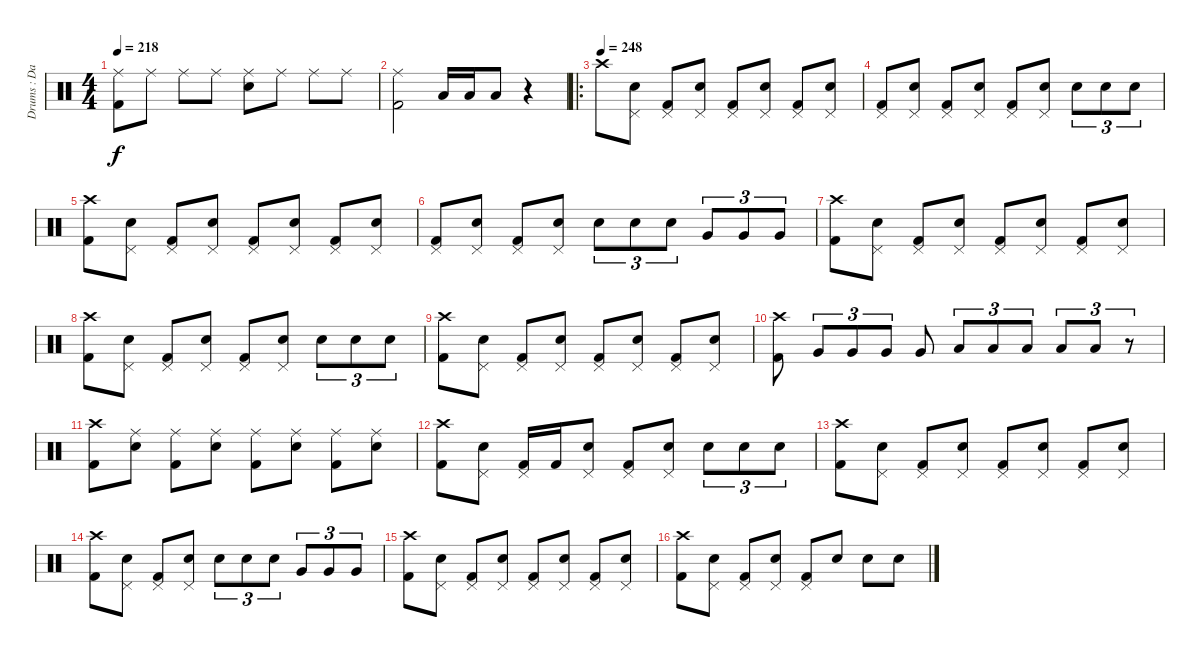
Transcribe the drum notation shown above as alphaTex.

\track ("Drums : Dave Lombardo" "Drums : Da") {instrument percussion}
\staff {score}
\articulation defaults
\ts (4 4)
\tempo 218
\clef neutral
\ks c
("Ride (middle)" "Kick (hit) 2").8{dy f} "Ride (middle)".8 "Ride (middle)".8 "Ride (middle)".8 ("Ride (middle)" "Electric Snare (hit)").8 "Ride (middle)".8 "Ride (middle)".8 "Ride (middle)".8 |
("Ride (middle)" "Kick (hit) 2").2 "Low Floor Tom (hit)".16 "Low Floor Tom (hit)".16 "Low Floor Tom (hit)".8 r.4 |
\ro
\tempo (248)
"Crash high (hit)".8 ("Pedal Hi-Hat (hit)" "Electric Snare (hit)").8 ("Pedal Hi-Hat (hit)" "Kick (hit) 2").8 ("Pedal Hi-Hat (hit)" "Electric Snare (hit)").8 ("Pedal Hi-Hat (hit)" "Kick (hit) 2").8 ("Pedal Hi-Hat (hit)" "Electric Snare (hit)").8 ("Pedal Hi-Hat (hit)" "Kick (hit) 2").8 ("Pedal Hi-Hat (hit)" "Electric Snare (hit)").8 |
("Pedal Hi-Hat (hit)" "Kick (hit) 2").8 ("Pedal Hi-Hat (hit)" "Electric Snare (hit)").8 ("Pedal Hi-Hat (hit)" "Kick (hit) 2").8 ("Pedal Hi-Hat (hit)" "Electric Snare (hit)").8 ("Pedal Hi-Hat (hit)" "Kick (hit) 2").8 ("Pedal Hi-Hat (hit)" "Electric Snare (hit)").8 "Electric Snare (hit)".8{tu (3 2)} "Electric Snare (hit)".8{tu (3 2)} "Electric Snare (hit)".8{tu (3 2)} |
("Crash high (hit)" "Kick (hit) 2").8 ("Pedal Hi-Hat (hit)" "Electric Snare (hit)").8 ("Pedal Hi-Hat (hit)" "Kick (hit) 2").8 ("Pedal Hi-Hat (hit)" "Electric Snare (hit)").8 ("Pedal Hi-Hat (hit)" "Kick (hit) 2").8 ("Pedal Hi-Hat (hit)" "Electric Snare (hit)").8 ("Pedal Hi-Hat (hit)" "Kick (hit) 2").8 ("Pedal Hi-Hat (hit)" "Electric Snare (hit)").8 |
("Pedal Hi-Hat (hit)" "Kick (hit) 2").8 ("Pedal Hi-Hat (hit)" "Electric Snare (hit)").8 ("Pedal Hi-Hat (hit)" "Kick (hit) 2").8 ("Pedal Hi-Hat (hit)" "Electric Snare (hit)").8 "Electric Snare (hit)".8{tu (3 2)} "Electric Snare (hit)".8{tu (3 2)} "Electric Snare (hit)".8{tu (3 2)} "Very Low Tom (hit)".8{tu (3 2)} "Very Low Tom (hit)".8{tu (3 2)} "Very Low Tom (hit)".8{tu (3 2)} |
("Crash high (hit)" "Kick (hit) 2").8 ("Pedal Hi-Hat (hit)" "Electric Snare (hit)").8 ("Pedal Hi-Hat (hit)" "Kick (hit) 2").8 ("Pedal Hi-Hat (hit)" "Electric Snare (hit)").8 ("Pedal Hi-Hat (hit)" "Kick (hit) 2").8 ("Pedal Hi-Hat (hit)" "Electric Snare (hit)").8 ("Pedal Hi-Hat (hit)" "Kick (hit) 2").8 ("Pedal Hi-Hat (hit)" "Electric Snare (hit)").8 |
("Crash high (hit)" "Kick (hit) 2").8 ("Pedal Hi-Hat (hit)" "Electric Snare (hit)").8 ("Pedal Hi-Hat (hit)" "Kick (hit) 2").8 ("Pedal Hi-Hat (hit)" "Electric Snare (hit)").8 ("Pedal Hi-Hat (hit)" "Kick (hit) 2").8 ("Pedal Hi-Hat (hit)" "Electric Snare (hit)").8 "Electric Snare (hit)".8{tu (3 2)} "Electric Snare (hit)".8{tu (3 2)} "Electric Snare (hit)".8{tu (3 2)} |
("Crash high (hit)" "Kick (hit) 2").8 ("Pedal Hi-Hat (hit)" "Electric Snare (hit)").8 ("Pedal Hi-Hat (hit)" "Kick (hit) 2").8 ("Pedal Hi-Hat (hit)" "Electric Snare (hit)").8 ("Pedal Hi-Hat (hit)" "Kick (hit) 2").8 ("Pedal Hi-Hat (hit)" "Electric Snare (hit)").8 ("Pedal Hi-Hat (hit)" "Kick (hit) 2").8 ("Pedal Hi-Hat (hit)" "Electric Snare (hit)").8 |
("Crash high (hit)" "Kick (hit) 2").8 "Very Low Tom (hit)".8{tu (3 2)} "Very Low Tom (hit)".8{tu (3 2)} "Very Low Tom (hit)".8{tu (3 2)} "Very Low Tom (hit)".8 "Low Tom (hit)".8{tu (3 2)} "Low Tom (hit)".8{tu (3 2)} "Low Tom (hit)".8{tu (3 2)} "Low Tom (hit)".8{tu (3 2)} "Low Tom (hit)".8{tu (3 2)} r.8{tu (3 2)} |
("Crash high (hit)" "Kick (hit) 2").8 ("Ride (middle)" "Electric Snare (hit)").8 ("Ride (middle)" "Kick (hit) 2").8 ("Ride (middle)" "Electric Snare (hit)").8 ("Ride (middle)" "Kick (hit) 2").8 ("Ride (middle)" "Electric Snare (hit)").8 ("Ride (middle)" "Kick (hit) 2").8 ("Ride (middle)" "Electric Snare (hit)").8 |
("Crash high (hit)" "Kick (hit) 2").8 ("Pedal Hi-Hat (hit)" "Electric Snare (hit)").8 ("Pedal Hi-Hat (hit)" "Kick (hit) 2").16 "Kick (hit) 2".16 ("Pedal Hi-Hat (hit)" "Electric Snare (hit)").8 ("Pedal Hi-Hat (hit)" "Kick (hit) 2").8 ("Pedal Hi-Hat (hit)" "Electric Snare (hit)").8 "Electric Snare (hit)".8{tu (3 2)} "Electric Snare (hit)".8{tu (3 2)} "Electric Snare (hit)".8{tu (3 2)} |
("Crash high (hit)" "Kick (hit) 2").8 ("Pedal Hi-Hat (hit)" "Electric Snare (hit)").8 ("Pedal Hi-Hat (hit)" "Kick (hit) 2").8 ("Pedal Hi-Hat (hit)" "Electric Snare (hit)").8 ("Pedal Hi-Hat (hit)" "Kick (hit) 2").8 ("Pedal Hi-Hat (hit)" "Electric Snare (hit)").8 ("Pedal Hi-Hat (hit)" "Kick (hit) 2").8 ("Pedal Hi-Hat (hit)" "Electric Snare (hit)").8 |
("Crash high (hit)" "Kick (hit) 2").8 ("Pedal Hi-Hat (hit)" "Electric Snare (hit)").8 ("Pedal Hi-Hat (hit)" "Kick (hit) 2").8 ("Pedal Hi-Hat (hit)" "Electric Snare (hit)").8 "Electric Snare (hit)".8{tu (3 2)} "Electric Snare (hit)".8{tu (3 2)} "Electric Snare (hit)".8{tu (3 2)} "Very Low Tom (hit)".8{tu (3 2)} "Very Low Tom (hit)".8{tu (3 2)} "Very Low Tom (hit)".8{tu (3 2)} |
("Crash high (hit)" "Kick (hit) 2").8 ("Pedal Hi-Hat (hit)" "Electric Snare (hit)").8 ("Pedal Hi-Hat (hit)" "Kick (hit) 2").8 ("Pedal Hi-Hat (hit)" "Electric Snare (hit)").8 ("Pedal Hi-Hat (hit)" "Kick (hit) 2").8 ("Pedal Hi-Hat (hit)" "Electric Snare (hit)").8 ("Pedal Hi-Hat (hit)" "Kick (hit) 2").8 ("Pedal Hi-Hat (hit)" "Electric Snare (hit)").8 |
("Crash high (hit)" "Kick (hit) 2").8 ("Pedal Hi-Hat (hit)" "Electric Snare (hit)").8 ("Pedal Hi-Hat (hit)" "Kick (hit) 2").8 ("Pedal Hi-Hat (hit)" "Electric Snare (hit)").8 ("Pedal Hi-Hat (hit)" "Kick (hit) 2").8 "Electric Snare (hit)".8 "Electric Snare (hit)".8 "Electric Snare (hit)".8
